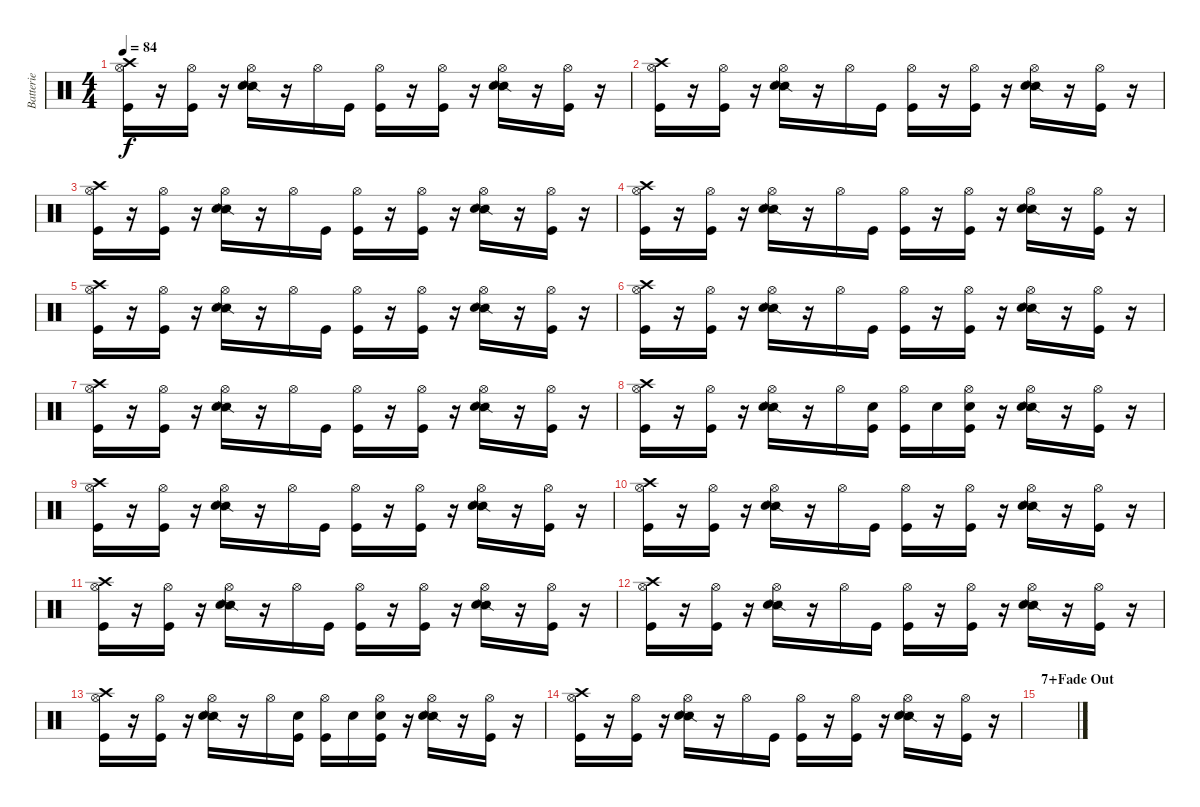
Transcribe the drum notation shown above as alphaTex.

\track ("Batterie" "Batterie") {instrument percussion}
\staff {score}
\articulation defaults
\ts (4 4)
\tempo 84
\clef neutral
\ks c
("Hi-Hat (open)" "Crash high (hit)" "Kick (hit)").16{dy f} r.16 ("Hi-Hat (open)" "Kick (hit)").16 r.16 ("Hi-Hat (open)" "Snare (side stick) 2" "Electric Snare (hit)").16 r.16 "Hi-Hat (open)".16 "Kick (hit)".16 ("Hi-Hat (open)" "Kick (hit)").16 r.16 ("Hi-Hat (open)" "Kick (hit)").16 r.16 ("Hi-Hat (open)" "Snare (side stick) 2" "Electric Snare (hit)").16 r.16 ("Hi-Hat (open)" "Kick (hit)").16 r.16 |
("Hi-Hat (open)" "Crash high (hit)" "Kick (hit)").16 r.16 ("Hi-Hat (open)" "Kick (hit)").16 r.16 ("Hi-Hat (open)" "Snare (side stick) 2" "Electric Snare (hit)").16 r.16 "Hi-Hat (open)".16 "Kick (hit)".16 ("Hi-Hat (open)" "Kick (hit)").16 r.16 ("Hi-Hat (open)" "Kick (hit)").16 r.16 ("Hi-Hat (open)" "Snare (side stick) 2" "Electric Snare (hit)").16 r.16 ("Hi-Hat (open)" "Kick (hit)").16 r.16 |
("Hi-Hat (open)" "Crash high (hit)" "Kick (hit)").16 r.16 ("Hi-Hat (open)" "Kick (hit)").16 r.16 ("Hi-Hat (open)" "Snare (side stick) 2" "Electric Snare (hit)").16 r.16 "Hi-Hat (open)".16 "Kick (hit)".16 ("Hi-Hat (open)" "Kick (hit)").16 r.16 ("Hi-Hat (open)" "Kick (hit)").16 r.16 ("Hi-Hat (open)" "Snare (side stick) 2" "Electric Snare (hit)").16 r.16 ("Hi-Hat (open)" "Kick (hit)").16 r.16 |
("Hi-Hat (open)" "Crash high (hit)" "Kick (hit)").16 r.16 ("Hi-Hat (open)" "Kick (hit)").16 r.16 ("Hi-Hat (open)" "Snare (side stick) 2" "Electric Snare (hit)").16 r.16 "Hi-Hat (open)".16 "Kick (hit)".16 ("Hi-Hat (open)" "Kick (hit)").16 r.16 ("Hi-Hat (open)" "Kick (hit)").16 r.16 ("Hi-Hat (open)" "Snare (side stick) 2" "Electric Snare (hit)").16 r.16 ("Hi-Hat (open)" "Kick (hit)").16 r.16 |
("Hi-Hat (open)" "Crash high (hit)" "Kick (hit)").16 r.16 ("Hi-Hat (open)" "Kick (hit)").16 r.16 ("Hi-Hat (open)" "Snare (side stick) 2" "Electric Snare (hit)").16 r.16 "Hi-Hat (open)".16 "Kick (hit)".16 ("Hi-Hat (open)" "Kick (hit)").16 r.16 ("Hi-Hat (open)" "Kick (hit)").16 r.16 ("Hi-Hat (open)" "Snare (side stick) 2" "Electric Snare (hit)").16 r.16 ("Hi-Hat (open)" "Kick (hit)").16 r.16 |
("Hi-Hat (open)" "Crash high (hit)" "Kick (hit)").16 r.16 ("Hi-Hat (open)" "Kick (hit)").16 r.16 ("Hi-Hat (open)" "Snare (side stick) 2" "Electric Snare (hit)").16 r.16 "Hi-Hat (open)".16 "Kick (hit)".16 ("Hi-Hat (open)" "Kick (hit)").16 r.16 ("Hi-Hat (open)" "Kick (hit)").16 r.16 ("Hi-Hat (open)" "Snare (side stick) 2" "Electric Snare (hit)").16 r.16 ("Hi-Hat (open)" "Kick (hit)").16 r.16 |
("Hi-Hat (open)" "Crash high (hit)" "Kick (hit)").16 r.16 ("Hi-Hat (open)" "Kick (hit)").16 r.16 ("Hi-Hat (open)" "Snare (side stick) 2" "Electric Snare (hit)").16 r.16 "Hi-Hat (open)".16 "Kick (hit)".16 ("Hi-Hat (open)" "Kick (hit)").16 r.16 ("Hi-Hat (open)" "Kick (hit)").16 r.16 ("Hi-Hat (open)" "Snare (side stick) 2" "Electric Snare (hit)").16 r.16 ("Hi-Hat (open)" "Kick (hit)").16 r.16 |
("Hi-Hat (open)" "Crash high (hit)" "Kick (hit)").16 r.16 ("Hi-Hat (open)" "Kick (hit)").16 r.16 ("Hi-Hat (open)" "Snare (side stick) 2" "Electric Snare (hit)").16 r.16 "Hi-Hat (open)".16 ("Electric Snare (hit)" "Kick (hit)").16 ("Hi-Hat (open)" "Kick (hit)").16 "Electric Snare (hit)".16 ("Hi-Hat (open)" "Electric Snare (hit)" "Kick (hit)").16 r.16 ("Hi-Hat (open)" "Snare (side stick) 2" "Electric Snare (hit)").16 r.16 ("Hi-Hat (open)" "Kick (hit)").16 r.16 |
("Hi-Hat (open)" "Crash high (hit)" "Kick (hit)").16 r.16 ("Hi-Hat (open)" "Kick (hit)").16 r.16 ("Hi-Hat (open)" "Snare (side stick) 2" "Electric Snare (hit)").16 r.16 "Hi-Hat (open)".16 "Kick (hit)".16 ("Hi-Hat (open)" "Kick (hit)").16 r.16 ("Hi-Hat (open)" "Kick (hit)").16 r.16 ("Hi-Hat (open)" "Snare (side stick) 2" "Electric Snare (hit)").16 r.16 ("Hi-Hat (open)" "Kick (hit)").16 r.16 |
("Hi-Hat (open)" "Crash high (hit)" "Kick (hit)").16 r.16 ("Hi-Hat (open)" "Kick (hit)").16 r.16 ("Hi-Hat (open)" "Snare (side stick) 2" "Electric Snare (hit)").16 r.16 "Hi-Hat (open)".16 "Kick (hit)".16 ("Hi-Hat (open)" "Kick (hit)").16 r.16 ("Hi-Hat (open)" "Kick (hit)").16 r.16 ("Hi-Hat (open)" "Snare (side stick) 2" "Electric Snare (hit)").16 r.16 ("Hi-Hat (open)" "Kick (hit)").16 r.16 |
("Hi-Hat (open)" "Crash high (hit)" "Kick (hit)").16 r.16 ("Hi-Hat (open)" "Kick (hit)").16 r.16 ("Hi-Hat (open)" "Snare (side stick) 2" "Electric Snare (hit)").16 r.16 "Hi-Hat (open)".16 "Kick (hit)".16 ("Hi-Hat (open)" "Kick (hit)").16 r.16 ("Hi-Hat (open)" "Kick (hit)").16 r.16 ("Hi-Hat (open)" "Snare (side stick) 2" "Electric Snare (hit)").16 r.16 ("Hi-Hat (open)" "Kick (hit)").16 r.16 |
("Hi-Hat (open)" "Crash high (hit)" "Kick (hit)").16 r.16 ("Hi-Hat (open)" "Kick (hit)").16 r.16 ("Hi-Hat (open)" "Snare (side stick) 2" "Electric Snare (hit)").16 r.16 "Hi-Hat (open)".16 "Kick (hit)".16 ("Hi-Hat (open)" "Kick (hit)").16 r.16 ("Hi-Hat (open)" "Kick (hit)").16 r.16 ("Hi-Hat (open)" "Snare (side stick) 2" "Electric Snare (hit)").16 r.16 ("Hi-Hat (open)" "Kick (hit)").16 r.16 |
("Hi-Hat (open)" "Crash high (hit)" "Kick (hit)").16 r.16 ("Hi-Hat (open)" "Kick (hit)").16 r.16 ("Hi-Hat (open)" "Snare (side stick) 2" "Electric Snare (hit)").16 r.16 "Hi-Hat (open)".16 ("Electric Snare (hit)" "Kick (hit)").16 ("Hi-Hat (open)" "Kick (hit)").16 "Electric Snare (hit)".16 ("Hi-Hat (open)" "Electric Snare (hit)" "Kick (hit)").16 r.16 ("Hi-Hat (open)" "Snare (side stick) 2" "Electric Snare (hit)").16 r.16 ("Hi-Hat (open)" "Kick (hit)").16 r.16 |
("Hi-Hat (open)" "Crash high (hit)" "Kick (hit)").16 r.16 ("Hi-Hat (open)" "Kick (hit)").16 r.16 ("Hi-Hat (open)" "Snare (side stick) 2" "Electric Snare (hit)").16 r.16 "Hi-Hat (open)".16 "Kick (hit)".16 ("Hi-Hat (open)" "Kick (hit)").16 r.16 ("Hi-Hat (open)" "Kick (hit)").16 r.16 ("Hi-Hat (open)" "Snare (side stick) 2" "Electric Snare (hit)").16 r.16 ("Hi-Hat (open)" "Kick (hit)").16 r.16 |
\section ("" "7+Fade Out")
